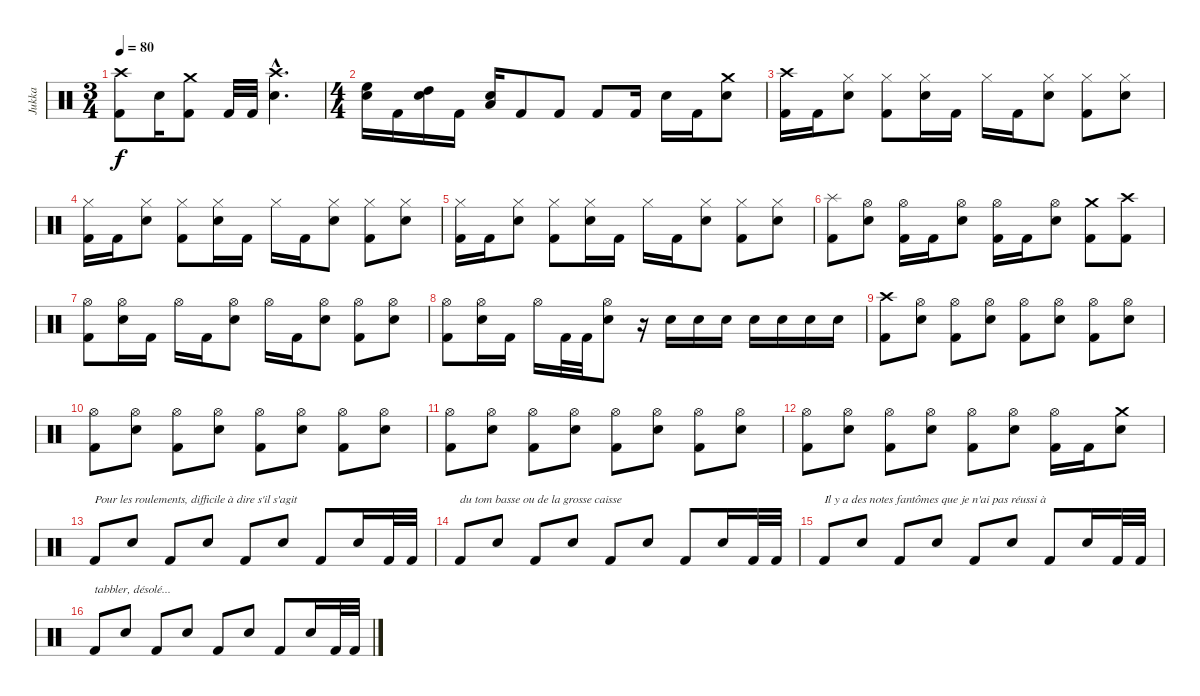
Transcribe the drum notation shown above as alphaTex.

\track ("Jukka" "Jukka") {instrument percussion}
\staff {score}
\articulation defaults
\ts (3 4)
\tempo 80
\clef neutral
\ks c
("Crash high (hit)" "Kick (hit) 2").8{dy f} "Electric Snare (hit)".16 ("Crash medium (hit)" "Kick (hit) 2").8 "Kick (hit) 2".32 "Kick (hit) 2".32 ("Crash high (hit)"{hac} "Electric Snare (hit)"{hac}).4{d} |
\ts (4 4)
("High Floor Tom (hit)" "Electric Snare (hit)").16 "Kick (hit) 2".16 ("High Tom (hit)" "Electric Snare (hit)").16 "Kick (hit) 2".16 ("Electric Snare (hit)" "Low Tom (hit)").16 "Kick (hit) 2".8 "Kick (hit) 2".8 "Kick (hit) 2".8 "Kick (hit) 2".16 "Electric Snare (hit)".16 "Kick (hit) 2".16 ("Crash medium (hit)" "Electric Snare (hit)").8 |
("Crash high (hit)" "Kick (hit) 2").16 "Kick (hit) 2".16 ("Hi-Hat (closed)" "Electric Snare (hit)").8 ("Hi-Hat (closed)" "Kick (hit) 2").8 ("Hi-Hat (closed)" "Electric Snare (hit)").16 "Kick (hit) 2".16 "Hi-Hat (closed)".16 "Kick (hit) 2".16 ("Hi-Hat (closed)" "Electric Snare (hit)").8 ("Hi-Hat (closed)" "Kick (hit) 2").8 ("Hi-Hat (closed)" "Electric Snare (hit)").8 |
("Hi-Hat (closed)" "Kick (hit) 2").16 "Kick (hit) 2".16 ("Hi-Hat (closed)" "Electric Snare (hit)").8 ("Hi-Hat (closed)" "Kick (hit) 2").8 ("Hi-Hat (closed)" "Electric Snare (hit)").16 "Kick (hit) 2".16 "Hi-Hat (closed)".16 "Kick (hit) 2".16 ("Hi-Hat (closed)" "Electric Snare (hit)").8 ("Hi-Hat (closed)" "Kick (hit) 2").8 ("Hi-Hat (closed)" "Electric Snare (hit)").8 |
("Hi-Hat (closed)" "Kick (hit) 2").16 "Kick (hit) 2".16 ("Hi-Hat (closed)" "Electric Snare (hit)").8 ("Hi-Hat (closed)" "Kick (hit) 2").8 ("Hi-Hat (closed)" "Electric Snare (hit)").16 "Kick (hit) 2".16 "Hi-Hat (closed)".16 "Kick (hit) 2".16 ("Hi-Hat (closed)" "Electric Snare (hit)").8 ("Hi-Hat (closed)" "Kick (hit) 2").8 ("Hi-Hat (closed)" "Electric Snare (hit)").8 |
("Splash (hit)" "Kick (hit) 2").8 ("Hi-Hat (open)" "Electric Snare (hit)").8 ("Hi-Hat (open)" "Kick (hit) 2").16 "Kick (hit) 2".16 ("Hi-Hat (open)" "Electric Snare (hit)").8 ("Hi-Hat (open)" "Kick (hit) 2").16 "Kick (hit) 2".16 ("Hi-Hat (open)" "Electric Snare (hit)").8 ("Crash medium (hit)" "Kick (hit) 2").8 ("Crash high (hit)" "Kick (hit) 2").8 |
("Hi-Hat (open)" "Kick (hit) 2").8 ("Hi-Hat (open)" "Electric Snare (hit)").16 "Kick (hit) 2".16 "Hi-Hat (open)".16 "Kick (hit) 2".16 ("Hi-Hat (open)" "Electric Snare (hit)").8 "Hi-Hat (open)".16 "Kick (hit) 2".16 ("Hi-Hat (open)" "Electric Snare (hit)").8 ("Hi-Hat (open)" "Kick (hit) 2").8 ("Hi-Hat (open)" "Electric Snare (hit)").8 |
("Hi-Hat (open)" "Kick (hit) 2").8 ("Hi-Hat (open)" "Electric Snare (hit)").16 "Kick (hit) 2".16 "Hi-Hat (open)".16 "Kick (hit) 2".32 "Kick (hit) 2".32 ("Hi-Hat (open)" "Electric Snare (hit)").8 r.16 "Electric Snare (hit)".16 "Electric Snare (hit)".16 "Electric Snare (hit)".16 "Electric Snare (hit)".16 "Electric Snare (hit)".16 "Electric Snare (hit)".16 "Electric Snare (hit)".16 |
("Crash high (hit)" "Kick (hit) 2").8 ("Hi-Hat (open)" "Electric Snare (hit)").8 ("Hi-Hat (open)" "Kick (hit) 2").8 ("Hi-Hat (open)" "Electric Snare (hit)").8 ("Hi-Hat (open)" "Kick (hit) 2").8 ("Hi-Hat (open)" "Electric Snare (hit)").8 ("Hi-Hat (open)" "Kick (hit) 2").8 ("Hi-Hat (open)" "Electric Snare (hit)").8 |
("Hi-Hat (open)" "Kick (hit) 2").8 ("Hi-Hat (open)" "Electric Snare (hit)").8 ("Hi-Hat (open)" "Kick (hit) 2").8 ("Hi-Hat (open)" "Electric Snare (hit)").8 ("Hi-Hat (open)" "Kick (hit) 2").8 ("Hi-Hat (open)" "Electric Snare (hit)").8 ("Hi-Hat (open)" "Kick (hit) 2").8 ("Hi-Hat (open)" "Electric Snare (hit)").8 |
("Hi-Hat (open)" "Kick (hit) 2").8 ("Hi-Hat (open)" "Electric Snare (hit)").8 ("Hi-Hat (open)" "Kick (hit) 2").8 ("Hi-Hat (open)" "Electric Snare (hit)").8 ("Hi-Hat (open)" "Kick (hit) 2").8 ("Hi-Hat (open)" "Electric Snare (hit)").8 ("Hi-Hat (open)" "Kick (hit) 2").8 ("Hi-Hat (open)" "Electric Snare (hit)").8 |
("Hi-Hat (open)" "Kick (hit) 2").8 ("Hi-Hat (open)" "Electric Snare (hit)").8 ("Hi-Hat (open)" "Kick (hit) 2").8 ("Hi-Hat (open)" "Electric Snare (hit)").8 ("Hi-Hat (open)" "Kick (hit) 2").8 ("Hi-Hat (open)" "Electric Snare (hit)").8 ("Hi-Hat (open)" "Kick (hit) 2").16 "Kick (hit) 2".16 ("Crash medium (hit)" "Electric Snare (hit)").8 |
"Kick (hit) 2".8{txt "Pour les roulements, difficile à dire s'il s'agit"} "Electric Snare (hit)".8 "Kick (hit) 2".8 "Electric Snare (hit)".8 "Kick (hit) 2".8 "Electric Snare (hit)".8 "Kick (hit) 2".8 "Electric Snare (hit)".16 "Kick (hit) 2".32 "Kick (hit) 2".32 |
"Kick (hit) 2".8{txt "du tom basse ou de la grosse caisse"} "Electric Snare (hit)".8 "Kick (hit) 2".8 "Electric Snare (hit)".8 "Kick (hit) 2".8 "Electric Snare (hit)".8 "Kick (hit) 2".8 "Electric Snare (hit)".16 "Kick (hit) 2".32 "Kick (hit) 2".32 |
"Kick (hit) 2".8{txt "Il y a des notes fantômes que je n'ai pas réussi à"} "Electric Snare (hit)".8 "Kick (hit) 2".8 "Electric Snare (hit)".8 "Kick (hit) 2".8 "Electric Snare (hit)".8 "Kick (hit) 2".8 "Electric Snare (hit)".16 "Kick (hit) 2".32 "Kick (hit) 2".32 |
"Kick (hit) 2".8{txt "tabbler, désolé..."} "Electric Snare (hit)".8 "Kick (hit) 2".8 "Electric Snare (hit)".8 "Kick (hit) 2".8 "Electric Snare (hit)".8 "Kick (hit) 2".8 "Electric Snare (hit)".16 "Kick (hit) 2".32 "Kick (hit) 2".32
